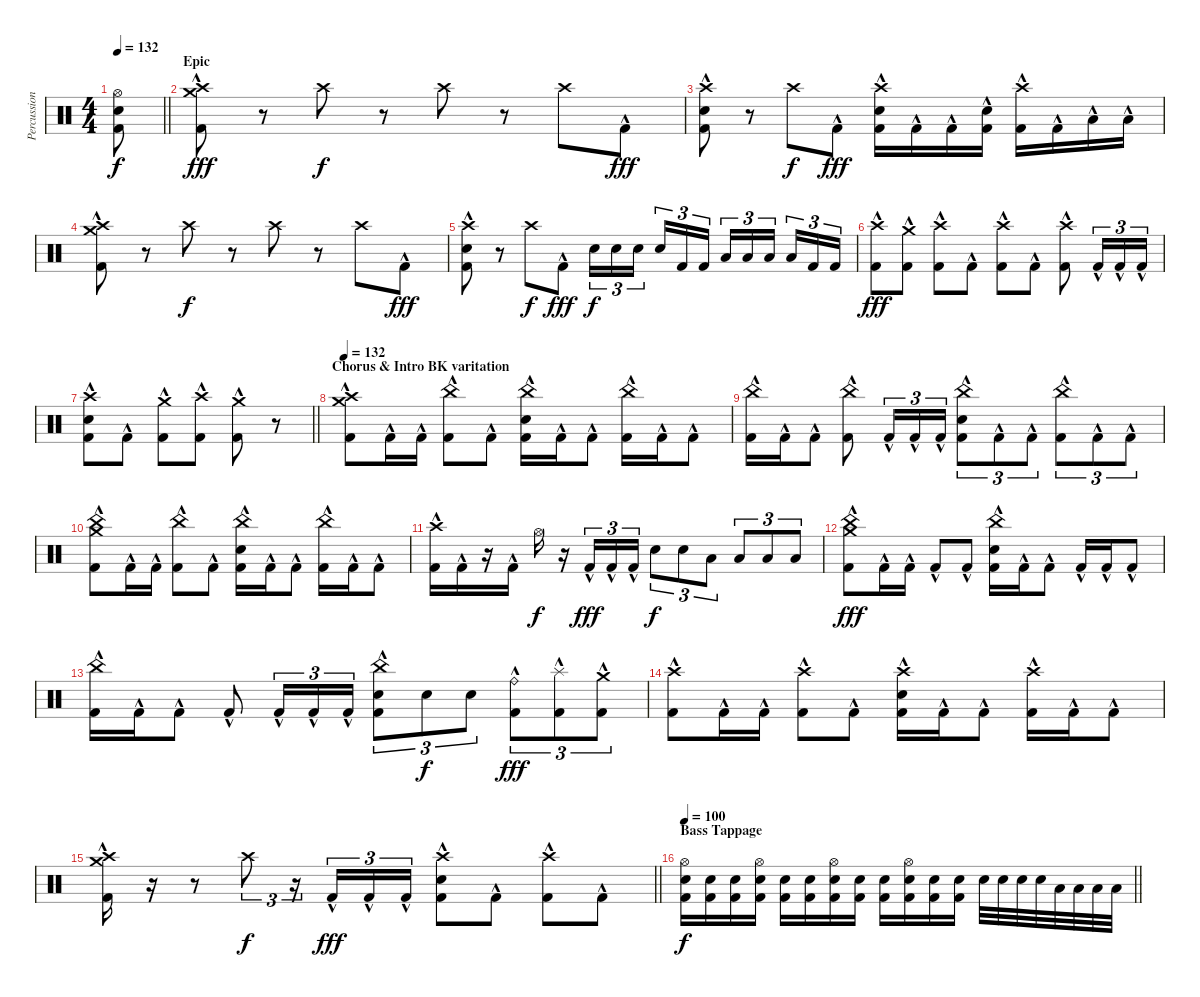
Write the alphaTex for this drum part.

\track ("Percussion" "Percussion") {instrument percussion}
\staff {score}
\articulation defaults
\ts (4 4)
\tempo 132
\clef neutral
\barLineRight lightlight
\ks c
("Kick (hit) 2" "Electric Snare (hit)" "Hi-Hat (open)").8{dy f} |
\section ("" "Epic")
("Crash high (hit)" "Crash medium (hit)" "Kick (hit) 2"{hac}).8{dy fff} r.8 "Crash high (hit)".8{dy f} r.8 "Crash high (hit)".8 r.8 "Crash high (hit)".8 "Kick (hit) 2"{hac}.8{dy fff} |
("Crash high (hit)" "Electric Snare (hit)" "Kick (hit) 2"{hac}).8 r.8 "Crash high (hit)".8{dy f} "Kick (hit) 2"{hac}.8{dy fff} ("Crash high (hit)" "Electric Snare (hit)" "Kick (hit) 2"{hac}).16 "Kick (hit) 2"{hac}.16 "Kick (hit) 2"{hac}.16 ("Electric Snare (hit)" "Kick (hit) 2"{hac}).16 ("Crash high (hit)" "Kick (hit) 2"{hac}).16 "Kick (hit) 2"{hac}.16 "Low Floor Tom (hit)"{hac}.16 "Low Floor Tom (hit)"{hac}.16 |
("Crash high (hit)" "Crash medium (hit)" "Kick (hit) 2"{hac}).8 r.8 "Crash high (hit)".8{dy f} r.8 "Crash high (hit)".8 r.8 "Crash high (hit)".8 "Kick (hit) 2"{hac}.8{dy fff} |
("Crash high (hit)" "Electric Snare (hit)" "Kick (hit) 2"{hac}).8 r.8 "Crash high (hit)".8{dy f} "Kick (hit) 2"{hac}.8{dy fff} "Electric Snare (hit)".16{tu (3 2) dy f} "Electric Snare (hit)".16{tu (3 2)} "Electric Snare (hit)".16{tu (3 2) beam splitsecondary} "Electric Snare (hit)".16{tu (3 2)} "Kick (hit) 2".16{tu (3 2)} "Kick (hit) 2".16{tu (3 2)} "Low Tom (hit)".16{tu (3 2)} "Low Tom (hit)".16{tu (3 2)} "Low Tom (hit)".16{tu (3 2) beam splitsecondary} "Low Tom (hit)".16{tu (3 2)} "Kick (hit) 2".16{tu (3 2)} "Kick (hit) 2".16{tu (3 2)} |
("Crash high (hit)" "Kick (hit) 2"{hac}).8{dy fff} ("Crash medium (hit)" "Kick (hit) 2"{hac}).8 ("Crash high (hit)" "Kick (hit) 2"{hac}).8 "Kick (hit) 2"{hac}.8 ("Crash high (hit)" "Kick (hit) 2"{hac}).8 "Kick (hit) 2"{hac}.8 ("Crash high (hit)" "Kick (hit) 2"{hac}).8 "Kick (hit) 2"{hac}.16{tu (3 2)} "Kick (hit) 2"{hac}.16{tu (3 2)} "Kick (hit) 2"{hac}.16{tu (3 2)} |
\barLineRight lightlight
("Crash high (hit)" "Electric Snare (hit)" "Kick (hit) 2"{hac}).8 "Kick (hit) 2"{hac}.8 ("Crash medium (hit)" "Kick (hit) 2"{hac}).8 ("Crash high (hit)" "Kick (hit) 2"{hac}).8 ("Crash medium (hit)" "Kick (hit) 2"{hac}).8 r.8{volume 0} |
\section ("" "Chorus & Intro BK varitation")
\tempo 132
("Crash high (hit)" "Crash medium (hit)" "Kick (hit) 2"{hac}).8{volume 13} "Kick (hit) 2"{hac}.16 "Kick (hit) 2"{hac}.16 ("China (hit)" "Kick (hit) 2"{hac}).8 "Kick (hit) 2"{hac}.8 ("Electric Snare (hit)" "China (hit)" "Kick (hit) 2"{hac}).16 "Kick (hit) 2"{hac}.16 "Kick (hit) 2"{hac}.8 ("China (hit)" "Kick (hit) 2"{hac}).16 "Kick (hit) 2"{hac}.16 "Kick (hit) 2"{hac}.8 |
("China (hit)" "Kick (hit) 2"{hac}).16 "Kick (hit) 2"{hac}.16 "Kick (hit) 2"{hac}.8 ("China (hit)" "Kick (hit) 2"{hac}).8 "Kick (hit) 2"{hac}.16{tu (3 2)} "Kick (hit) 2"{hac}.16{tu (3 2)} "Kick (hit) 2"{hac}.16{tu (3 2)} ("Electric Snare (hit)" "China (hit)" "Kick (hit) 2"{hac}).8{tu (3 2)} "Kick (hit) 2"{hac}.8{tu (3 2)} "Kick (hit) 2"{hac}.8{tu (3 2)} ("China (hit)" "Kick (hit) 2"{hac}).8{tu (3 2)} "Kick (hit) 2"{hac}.8{tu (3 2)} "Kick (hit) 2"{hac}.8{tu (3 2)} |
("Crash medium (hit)" "China (hit)" "Kick (hit) 2"{hac}).8 "Kick (hit) 2"{hac}.16 "Kick (hit) 2"{hac}.16 ("China (hit)" "Kick (hit) 2"{hac}).8 "Kick (hit) 2"{hac}.8 ("Electric Snare (hit)" "China (hit)" "Kick (hit) 2"{hac}).16 "Kick (hit) 2"{hac}.16 "Kick (hit) 2"{hac}.8 ("China (hit)" "Kick (hit) 2"{hac}).16 "Kick (hit) 2"{hac}.16 "Kick (hit) 2"{hac}.8 |
("Crash high (hit)" "Kick (hit) 2"{hac}).16 "Kick (hit) 2"{hac}.16 r.16 "Kick (hit) 2"{hac}.16 "Hi-Hat (open)".16{dy f} r.16 "Kick (hit) 2"{hac}.16{tu (3 2) dy fff} "Kick (hit) 2"{hac}.16{tu (3 2)} "Kick (hit) 2"{hac}.16{tu (3 2)} "Electric Snare (hit)".8{tu (3 2) dy f} "Electric Snare (hit)".8{tu (3 2)} "Low Tom (hit)".8{tu (3 2)} "Low Tom (hit)".8{tu (3 2)} "Low Floor Tom (hit)".8{tu (3 2)} "Low Floor Tom (hit)".8{tu (3 2)} |
("China (hit)" "Crash medium (hit)" "Kick (hit) 2"{hac}).8{dy fff} "Kick (hit) 2"{hac}.16 "Kick (hit) 2"{hac}.16 "Kick (hit) 2"{hac}.8 "Kick (hit) 2"{hac}.8 ("Electric Snare (hit)" "China (hit)" "Kick (hit) 2"{hac}).16 "Kick (hit) 2"{hac}.16 "Kick (hit) 2"{hac}.8 "Kick (hit) 2"{hac}.16 "Kick (hit) 2"{hac}.16 "Kick (hit) 2"{hac}.8 |
("China (hit)" "Kick (hit) 2"{hac}).16 "Kick (hit) 2"{hac}.16 "Kick (hit) 2"{hac}.8 "Kick (hit) 2"{hac}.8 "Kick (hit) 2"{hac}.16{tu (3 2)} "Kick (hit) 2"{hac}.16{tu (3 2)} "Kick (hit) 2"{hac}.16{tu (3 2)} ("Electric Snare (hit)" "China (hit)" "Kick (hit) 2"{hac}).8{tu (3 2)} "Electric Snare (hit)".8{tu (3 2) dy f} "Electric Snare (hit)".8{tu (3 2)} ("Ride (bell)" "Kick (hit) 2"{hac}).8{tu (3 2) dy fff} ("Splash (hit)" "Kick (hit) 2"{hac}).8{tu (3 2)} ("Crash medium (hit)" "Kick (hit) 2"{hac}).8{tu (3 2)} |
("Crash high (hit)" "Kick (hit) 2"{hac}).8 "Kick (hit) 2"{hac}.16 "Kick (hit) 2"{hac}.16 ("Crash high (hit)" "Kick (hit) 2"{hac}).8 "Kick (hit) 2"{hac}.8 ("Electric Snare (hit)" "Crash high (hit)" "Kick (hit) 2"{hac}).16 "Kick (hit) 2"{hac}.16 "Kick (hit) 2"{hac}.8 ("Crash high (hit)" "Kick (hit) 2"{hac}).16 "Kick (hit) 2"{hac}.16 "Kick (hit) 2"{hac}.8 |
\barLineRight lightlight
("Crash medium (hit)" "Crash high (hit)" "Kick (hit) 2"{hac}).16 r.16 r.8 "Crash high (hit)".8{tu (3 2) dy f} r.16{tu (3 2)} "Kick (hit) 2"{hac}.16{tu (3 2) dy fff} "Kick (hit) 2"{hac}.16{tu (3 2)} "Kick (hit) 2"{hac}.16{tu (3 2)} ("Crash high (hit)" "Electric Snare (hit)" "Kick (hit) 2"{hac}).8 "Kick (hit) 2"{hac}.8 ("Crash high (hit)" "Kick (hit) 2"{hac}).8 "Kick (hit) 2"{hac}.8 |
\section ("" "Bass Tappage")
\tempo 100
\barLineRight lightlight
("Hi-Hat (open)" "Electric Snare (hit)" "Kick (hit) 2").16{dy f} ("Electric Snare (hit)" "Kick (hit) 2").16 ("Electric Snare (hit)" "Kick (hit) 2").16 ("Hi-Hat (open)" "Electric Snare (hit)" "Kick (hit) 2").16 ("Electric Snare (hit)" "Kick (hit) 2").16 ("Electric Snare (hit)" "Kick (hit) 2").16 ("Hi-Hat (open)" "Electric Snare (hit)" "Kick (hit) 2").16 ("Electric Snare (hit)" "Kick (hit) 2").16 ("Electric Snare (hit)" "Kick (hit) 2").16 ("Hi-Hat (open)" "Electric Snare (hit)" "Kick (hit) 2").16 ("Electric Snare (hit)" "Kick (hit) 2").16 ("Electric Snare (hit)" "Kick (hit) 2").16 "Electric Snare (hit)".32 "Electric Snare (hit)".32 "Electric Snare (hit)".32 "Electric Snare (hit)".32 "Low Tom (hit)".32 "Low Tom (hit)".32 "Low Tom (hit)".32 "Low Tom (hit)".32
